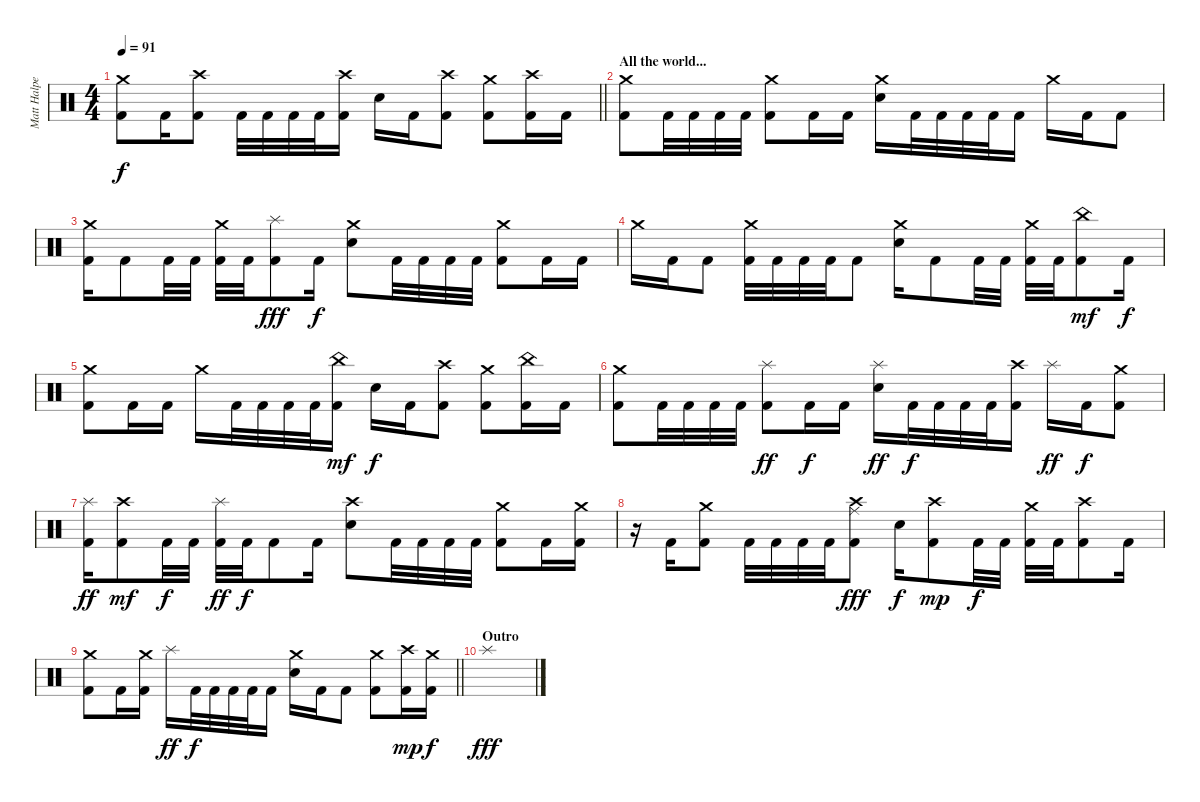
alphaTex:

\track ("Matt Halpern - Drums" "Matt Halpe") {instrument percussion}
\staff {score}
\articulation defaults
\ts (4 4)
\tempo 91
\clef neutral
\barLineRight lightlight
\ks c
("Crash medium (hit)" "Kick (hit) 2").8{dy f} "Kick (hit) 2".16 ("Crash high (hit)" "Kick (hit) 2").8 "Kick (hit) 2".32 "Kick (hit) 2".32 "Kick (hit) 2".32 "Kick (hit) 2".32 ("Crash high (hit)" "Kick (hit) 2").16 "Electric Snare (hit)".16 "Kick (hit) 2".16 ("Crash high (hit)" "Kick (hit) 2").8 ("Crash medium (hit)" "Kick (hit) 2").8 ("Crash high (hit)" "Kick (hit) 2").16 "Kick (hit) 2".16 |
\section ("" "All the world...")
("Crash medium (hit)" "Kick (hit) 2").8 "Kick (hit) 2".32 "Kick (hit) 2".32 "Kick (hit) 2".32 "Kick (hit) 2".32 ("Crash medium (hit)" "Kick (hit) 2").8 "Kick (hit) 2".16 "Kick (hit) 2".16 ("Crash medium (hit)" "Electric Snare (hit)").16 "Kick (hit) 2".32 "Kick (hit) 2".32 "Kick (hit) 2".32 "Kick (hit) 2".32 "Kick (hit) 2".16 "Crash medium (hit)".16 "Kick (hit) 2".16 "Kick (hit) 2".8 |
("Crash medium (hit)" "Kick (hit) 2").16 "Kick (hit) 2".8 "Kick (hit) 2".32 "Kick (hit) 2".32 ("Crash medium (hit)" "Kick (hit) 2").32 "Kick (hit) 2".32 ("Splash (hit)" "Kick (hit) 2").8{dy fff} "Kick (hit) 2".16{dy f} ("Crash medium (hit)" "Electric Snare (hit)").8 "Kick (hit) 2".32 "Kick (hit) 2".32 "Kick (hit) 2".32 "Kick (hit) 2".32 ("Crash medium (hit)" "Kick (hit) 2").8 "Kick (hit) 2".16 "Kick (hit) 2".16 |
"Crash medium (hit)".16 "Kick (hit) 2".16 "Kick (hit) 2".8 ("Crash medium (hit)" "Kick (hit) 2").32 "Kick (hit) 2".32 "Kick (hit) 2".32 "Kick (hit) 2".32 "Kick (hit) 2".8 ("Crash medium (hit)" "Electric Snare (hit)").16 "Kick (hit) 2".8 "Kick (hit) 2".32 "Kick (hit) 2".32 ("Crash medium (hit)" "Kick (hit) 2").32 "Kick (hit) 2".32 ("China (hit)" "Kick (hit) 2").8{dy mf} "Kick (hit) 2".16{dy f} |
("Crash medium (hit)" "Kick (hit) 2").8 "Kick (hit) 2".16 "Kick (hit) 2".16 "Crash medium (hit)".16 "Kick (hit) 2".32 "Kick (hit) 2".32 "Kick (hit) 2".32 "Kick (hit) 2".32 ("China (hit)" "Kick (hit) 2").16{dy mf} "Electric Snare (hit)".16{dy f} "Kick (hit) 2".16 ("Crash high (hit)" "Kick (hit) 2").8 ("Crash medium (hit)" "Kick (hit) 2").8 ("China (hit)" "Kick (hit) 2").16 "Kick (hit) 2".16 |
("Crash medium (hit)" "Kick (hit) 2").8 "Kick (hit) 2".32 "Kick (hit) 2".32 "Kick (hit) 2".32 "Kick (hit) 2".32 ("Splash (hit)" "Kick (hit) 2").8{dy ff} "Kick (hit) 2".16{dy f} "Kick (hit) 2".16 ("Splash (hit)" "Electric Snare (hit)").16{dy ff} "Kick (hit) 2".32{dy f} "Kick (hit) 2".32 "Kick (hit) 2".32 "Kick (hit) 2".32 ("Crash high (hit)" "Kick (hit) 2").16 "Splash (hit)".16{dy ff} "Kick (hit) 2".16{dy f} ("Crash medium (hit)" "Kick (hit) 2").8 |
("Splash (hit)" "Kick (hit) 2").16{dy ff} ("Crash high (hit)" "Kick (hit) 2").8{dy mf} "Kick (hit) 2".32{dy f} "Kick (hit) 2".32 ("Splash (hit)" "Kick (hit) 2").32{dy ff} "Kick (hit) 2".32{dy f} "Kick (hit) 2".8 "Kick (hit) 2".16 ("Crash high (hit)" "Electric Snare (hit)").8 "Kick (hit) 2".32 "Kick (hit) 2".32 "Kick (hit) 2".32 "Kick (hit) 2".32 ("Crash medium (hit)" "Kick (hit) 2").8 "Kick (hit) 2".16 ("Crash medium (hit)" "Kick (hit) 2").16 |
r.16 "Kick (hit) 2".16 ("Crash medium (hit)" "Kick (hit) 2").8 "Kick (hit) 2".32 "Kick (hit) 2".32 "Kick (hit) 2".32 "Kick (hit) 2".32 ("Crash high (hit)" "Ride (middle)" "Kick (hit) 2").8{dy fff} "Electric Snare (hit)".16{dy f} ("Crash high (hit)" "Kick (hit) 2").8{dy mp} "Kick (hit) 2".32{dy f} "Kick (hit) 2".32 ("Crash medium (hit)" "Kick (hit) 2").32 "Kick (hit) 2".32 ("Crash high (hit)" "Kick (hit) 2").8 "Kick (hit) 2".16 |
\barLineRight lightlight
("Crash medium (hit)" "Kick (hit) 2").8 "Kick (hit) 2".16 ("Crash medium (hit)" "Kick (hit) 2").16 "Splash (hit)".16{dy ff} "Kick (hit) 2".32{dy f} "Kick (hit) 2".32 "Kick (hit) 2".32 "Kick (hit) 2".32 "Kick (hit) 2".16 ("Crash medium (hit)" "Electric Snare (hit)").16 "Kick (hit) 2".16 "Kick (hit) 2".8 ("Crash medium (hit)" "Kick (hit) 2").8 ("Crash high (hit)" "Kick (hit) 2").16{dy mp} ("Crash medium (hit)" "Kick (hit) 2").16{dy f} |
\section ("" "Outro")
"Splash (hit)".1{dy fff}
